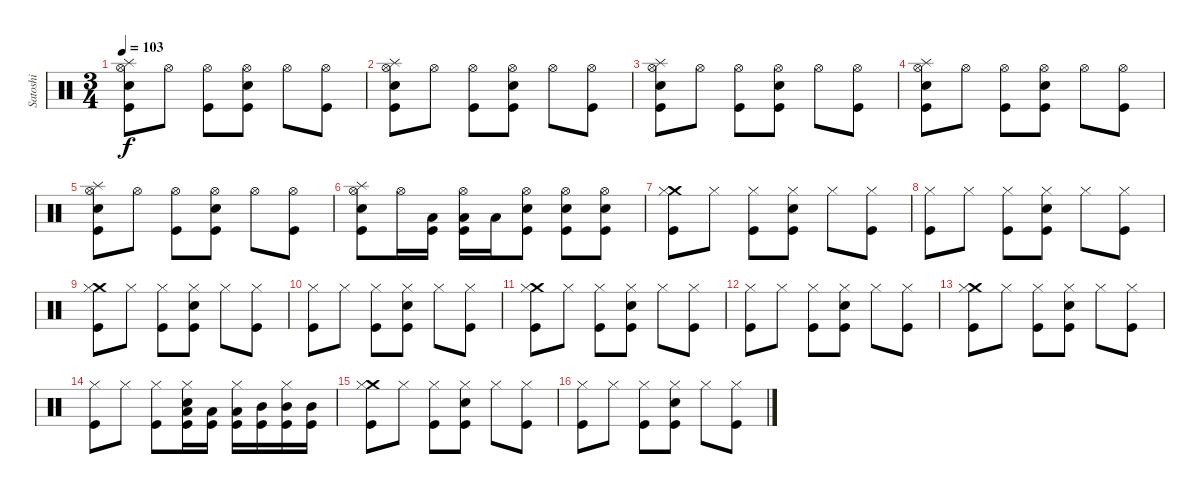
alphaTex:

\track ("Satoshi" "Satoshi") {instrument percussion}
\staff {score}
\articulation defaults
\ts (3 4)
\tempo 103
\clef neutral
\ks c
("Splash (hit)" "Hi-Hat (open)" "Electric Snare (hit)" "Kick (hit)").8{dy f} "Hi-Hat (open)".8 ("Hi-Hat (open)" "Kick (hit)").8 ("Hi-Hat (open)" "Electric Snare (hit)" "Kick (hit)").8 "Hi-Hat (open)".8 ("Hi-Hat (open)" "Kick (hit)").8 |
("Splash (hit)" "Hi-Hat (open)" "Electric Snare (hit)" "Kick (hit)").8 "Hi-Hat (open)".8 ("Hi-Hat (open)" "Kick (hit)").8 ("Hi-Hat (open)" "Electric Snare (hit)" "Kick (hit)").8 "Hi-Hat (open)".8 ("Hi-Hat (open)" "Kick (hit)").8 |
("Splash (hit)" "Hi-Hat (open)" "Electric Snare (hit)" "Kick (hit)").8 "Hi-Hat (open)".8 ("Hi-Hat (open)" "Kick (hit)").8 ("Hi-Hat (open)" "Electric Snare (hit)" "Kick (hit)").8 "Hi-Hat (open)".8 ("Hi-Hat (open)" "Kick (hit)").8 |
("Splash (hit)" "Hi-Hat (open)" "Electric Snare (hit)" "Kick (hit)").8 "Hi-Hat (open)".8 ("Hi-Hat (open)" "Kick (hit)").8 ("Hi-Hat (open)" "Electric Snare (hit)" "Kick (hit)").8 "Hi-Hat (open)".8 ("Hi-Hat (open)" "Kick (hit)").8 |
("Splash (hit)" "Hi-Hat (open)" "Electric Snare (hit)" "Kick (hit)").8 "Hi-Hat (open)".8 ("Hi-Hat (open)" "Kick (hit)").8 ("Hi-Hat (open)" "Electric Snare (hit)" "Kick (hit)").8 "Hi-Hat (open)".8 ("Hi-Hat (open)" "Kick (hit)").8 |
("Splash (hit)" "Hi-Hat (open)" "Electric Snare (hit)" "Kick (hit)").8 "Hi-Hat (open)".16 ("Low Tom (hit)" "Kick (hit)").16 ("Low Tom (hit)" "Hi-Hat (open)" "Kick (hit)").16 "Low Tom (hit)".16 ("Hi-Hat (open)" "Electric Snare (hit)" "Kick (hit)").8 ("Hi-Hat (open)" "Electric Snare (hit)" "Kick (hit)").8 ("Hi-Hat (open)" "Electric Snare (hit)" "Kick (hit)").8 |
("Crash medium (hit)" "Hi-Hat (closed)" "Kick (hit)").8 "Hi-Hat (closed)".8 ("Hi-Hat (closed)" "Kick (hit)").8 ("Hi-Hat (closed)" "Electric Snare (hit)" "Kick (hit)").8 "Hi-Hat (closed)".8 ("Hi-Hat (closed)" "Kick (hit)").8 |
("Hi-Hat (closed)" "Kick (hit)").8 "Hi-Hat (closed)".8 ("Hi-Hat (closed)" "Kick (hit)").8 ("Hi-Hat (closed)" "Electric Snare (hit)" "Kick (hit)").8 "Hi-Hat (closed)".8 ("Hi-Hat (closed)" "Kick (hit)").8 |
("Crash medium (hit)" "Hi-Hat (closed)" "Kick (hit)").8 "Hi-Hat (closed)".8 ("Hi-Hat (closed)" "Kick (hit)").8 ("Hi-Hat (closed)" "Electric Snare (hit)" "Kick (hit)").8 "Hi-Hat (closed)".8 ("Hi-Hat (closed)" "Kick (hit)").8 |
("Hi-Hat (closed)" "Kick (hit)").8 "Hi-Hat (closed)".8 ("Hi-Hat (closed)" "Kick (hit)").8 ("Hi-Hat (closed)" "Electric Snare (hit)" "Kick (hit)").8 "Hi-Hat (closed)".8 ("Hi-Hat (closed)" "Kick (hit)").8 |
("Crash medium (hit)" "Hi-Hat (closed)" "Kick (hit)").8 "Hi-Hat (closed)".8 ("Hi-Hat (closed)" "Kick (hit)").8 ("Hi-Hat (closed)" "Electric Snare (hit)" "Kick (hit)").8 "Hi-Hat (closed)".8 ("Hi-Hat (closed)" "Kick (hit)").8 |
("Hi-Hat (closed)" "Kick (hit)").8 "Hi-Hat (closed)".8 ("Hi-Hat (closed)" "Kick (hit)").8 ("Hi-Hat (closed)" "Electric Snare (hit)" "Kick (hit)").8 "Hi-Hat (closed)".8 ("Hi-Hat (closed)" "Kick (hit)").8 |
("Crash medium (hit)" "Hi-Hat (closed)" "Kick (hit)").8 "Hi-Hat (closed)".8 ("Hi-Hat (closed)" "Kick (hit)").8 ("Hi-Hat (closed)" "Electric Snare (hit)" "Kick (hit)").8 "Hi-Hat (closed)".8 ("Hi-Hat (closed)" "Kick (hit)").8 |
("Hi-Hat (closed)" "Kick (hit)").8 "Hi-Hat (closed)".8 ("Hi-Hat (closed)" "Kick (hit)").8 ("Low Tom (hit)" "Hi-Hat (closed)" "Electric Snare (hit)" "Kick (hit)").16 ("Low Tom (hit)" "Kick (hit)").16 ("Low Tom (hit)" "Hi-Hat (closed)" "Kick (hit)").16 ("Mid Tom (hit)" "Kick (hit)").16 ("Mid Tom (hit)" "Hi-Hat (closed)" "Kick (hit)").16 ("Mid Tom (hit)" "Kick (hit)").16 |
("Crash medium (hit)" "Hi-Hat (closed)" "Kick (hit)").8 "Hi-Hat (closed)".8 ("Hi-Hat (closed)" "Kick (hit)").8 ("Hi-Hat (closed)" "Electric Snare (hit)" "Kick (hit)").8 "Hi-Hat (closed)".8 ("Hi-Hat (closed)" "Kick (hit)").8 |
("Hi-Hat (closed)" "Kick (hit)").8 "Hi-Hat (closed)".8 ("Hi-Hat (closed)" "Kick (hit)").8 ("Hi-Hat (closed)" "Electric Snare (hit)" "Kick (hit)").8 "Hi-Hat (closed)".8 ("Hi-Hat (closed)" "Kick (hit)").8
